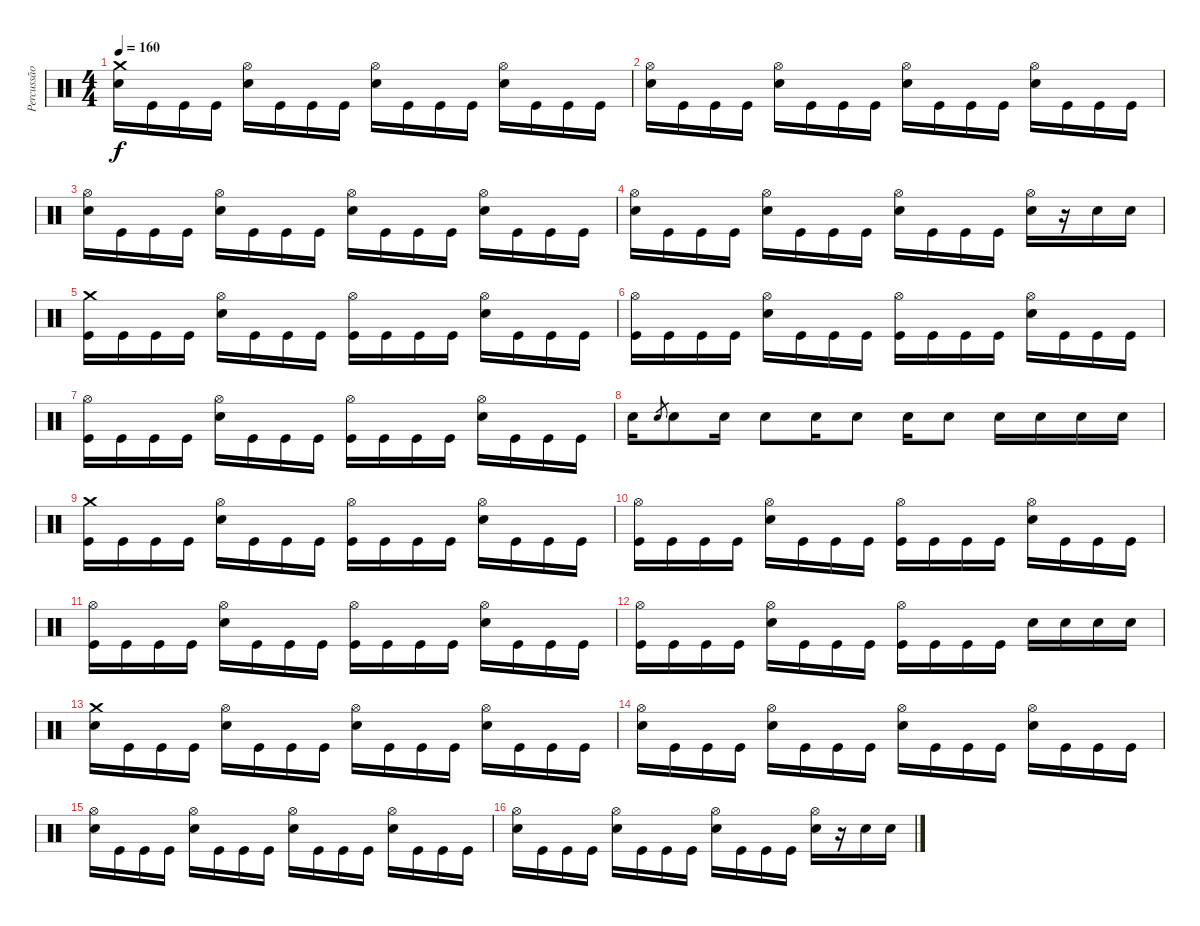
\track ("Percussão" "Percussão") {instrument percussion}
\staff {score}
\articulation defaults
\ts (4 4)
\tempo 160
\clef neutral
\ks c
("Crash medium (hit)" "Electric Snare (hit)").16{dy f} "Kick (hit)".16 "Kick (hit)".16 "Kick (hit)".16 ("Hi-Hat (open)" "Electric Snare (hit)").16 "Kick (hit)".16 "Kick (hit)".16 "Kick (hit)".16 ("Hi-Hat (open)" "Electric Snare (hit)").16 "Kick (hit)".16 "Kick (hit)".16 "Kick (hit)".16 ("Hi-Hat (open)" "Electric Snare (hit)").16 "Kick (hit)".16 "Kick (hit)".16 "Kick (hit)".16 |
("Hi-Hat (open)" "Electric Snare (hit)").16 "Kick (hit)".16 "Kick (hit)".16 "Kick (hit)".16 ("Hi-Hat (open)" "Electric Snare (hit)").16 "Kick (hit)".16 "Kick (hit)".16 "Kick (hit)".16 ("Hi-Hat (open)" "Electric Snare (hit)").16 "Kick (hit)".16 "Kick (hit)".16 "Kick (hit)".16 ("Hi-Hat (open)" "Electric Snare (hit)").16 "Kick (hit)".16 "Kick (hit)".16 "Kick (hit)".16 |
("Hi-Hat (open)" "Electric Snare (hit)").16 "Kick (hit)".16 "Kick (hit)".16 "Kick (hit)".16 ("Hi-Hat (open)" "Electric Snare (hit)").16 "Kick (hit)".16 "Kick (hit)".16 "Kick (hit)".16 ("Hi-Hat (open)" "Electric Snare (hit)").16 "Kick (hit)".16 "Kick (hit)".16 "Kick (hit)".16 ("Hi-Hat (open)" "Electric Snare (hit)").16 "Kick (hit)".16 "Kick (hit)".16 "Kick (hit)".16 |
("Hi-Hat (open)" "Electric Snare (hit)").16 "Kick (hit)".16 "Kick (hit)".16 "Kick (hit)".16 ("Hi-Hat (open)" "Electric Snare (hit)").16 "Kick (hit)".16 "Kick (hit)".16 "Kick (hit)".16 ("Hi-Hat (open)" "Electric Snare (hit)").16 "Kick (hit)".16 "Kick (hit)".16 "Kick (hit)".16 ("Hi-Hat (open)" "Electric Snare (hit)").16 r.16 "Electric Snare (hit)".16 "Electric Snare (hit)".16 |
("Crash medium (hit)" "Kick (hit)").16 "Kick (hit)".16 "Kick (hit)".16 "Kick (hit)".16 ("Hi-Hat (open)" "Electric Snare (hit)").16 "Kick (hit)".16 "Kick (hit)".16 "Kick (hit)".16 ("Hi-Hat (open)" "Kick (hit)").16 "Kick (hit)".16 "Kick (hit)".16 "Kick (hit)".16 ("Hi-Hat (open)" "Electric Snare (hit)").16 "Kick (hit)".16 "Kick (hit)".16 "Kick (hit)".16 |
("Hi-Hat (open)" "Kick (hit)").16 "Kick (hit)".16 "Kick (hit)".16 "Kick (hit)".16 ("Hi-Hat (open)" "Electric Snare (hit)").16 "Kick (hit)".16 "Kick (hit)".16 "Kick (hit)".16 ("Hi-Hat (open)" "Kick (hit)").16 "Kick (hit)".16 "Kick (hit)".16 "Kick (hit)".16 ("Hi-Hat (open)" "Electric Snare (hit)").16 "Kick (hit)".16 "Kick (hit)".16 "Kick (hit)".16 |
("Hi-Hat (open)" "Kick (hit)").16 "Kick (hit)".16 "Kick (hit)".16 "Kick (hit)".16 ("Hi-Hat (open)" "Electric Snare (hit)").16 "Kick (hit)".16 "Kick (hit)".16 "Kick (hit)".16 ("Hi-Hat (open)" "Kick (hit)").16 "Kick (hit)".16 "Kick (hit)".16 "Kick (hit)".16 ("Hi-Hat (open)" "Electric Snare (hit)").16 "Kick (hit)".16 "Kick (hit)".16 "Kick (hit)".16 |
"Electric Snare (hit)".16 "Electric Snare (hit)".8{gr} "Electric Snare (hit)".8 "Electric Snare (hit)".16 "Electric Snare (hit)".8 "Electric Snare (hit)".16 "Electric Snare (hit)".8 "Electric Snare (hit)".16 "Electric Snare (hit)".8 "Electric Snare (hit)".16 "Electric Snare (hit)".16 "Electric Snare (hit)".16 "Electric Snare (hit)".16 |
("Crash medium (hit)" "Kick (hit)").16 "Kick (hit)".16 "Kick (hit)".16 "Kick (hit)".16 ("Hi-Hat (open)" "Electric Snare (hit)").16 "Kick (hit)".16 "Kick (hit)".16 "Kick (hit)".16 ("Hi-Hat (open)" "Kick (hit)").16 "Kick (hit)".16 "Kick (hit)".16 "Kick (hit)".16 ("Hi-Hat (open)" "Electric Snare (hit)").16 "Kick (hit)".16 "Kick (hit)".16 "Kick (hit)".16 |
("Hi-Hat (open)" "Kick (hit)").16 "Kick (hit)".16 "Kick (hit)".16 "Kick (hit)".16 ("Hi-Hat (open)" "Electric Snare (hit)").16 "Kick (hit)".16 "Kick (hit)".16 "Kick (hit)".16 ("Hi-Hat (open)" "Kick (hit)").16 "Kick (hit)".16 "Kick (hit)".16 "Kick (hit)".16 ("Hi-Hat (open)" "Electric Snare (hit)").16 "Kick (hit)".16 "Kick (hit)".16 "Kick (hit)".16 |
("Hi-Hat (open)" "Kick (hit)").16 "Kick (hit)".16 "Kick (hit)".16 "Kick (hit)".16 ("Hi-Hat (open)" "Electric Snare (hit)").16 "Kick (hit)".16 "Kick (hit)".16 "Kick (hit)".16 ("Hi-Hat (open)" "Kick (hit)").16 "Kick (hit)".16 "Kick (hit)".16 "Kick (hit)".16 ("Hi-Hat (open)" "Electric Snare (hit)").16 "Kick (hit)".16 "Kick (hit)".16 "Kick (hit)".16 |
("Hi-Hat (open)" "Kick (hit)").16 "Kick (hit)".16 "Kick (hit)".16 "Kick (hit)".16 ("Hi-Hat (open)" "Electric Snare (hit)").16 "Kick (hit)".16 "Kick (hit)".16 "Kick (hit)".16 ("Hi-Hat (open)" "Kick (hit)").16 "Kick (hit)".16 "Kick (hit)".16 "Kick (hit)".16 "Electric Snare (hit)".16 "Electric Snare (hit)".16 "Electric Snare (hit)".16 "Electric Snare (hit)".16 |
("Crash medium (hit)" "Electric Snare (hit)").16 "Kick (hit)".16 "Kick (hit)".16 "Kick (hit)".16 ("Hi-Hat (open)" "Electric Snare (hit)").16 "Kick (hit)".16 "Kick (hit)".16 "Kick (hit)".16 ("Hi-Hat (open)" "Electric Snare (hit)").16 "Kick (hit)".16 "Kick (hit)".16 "Kick (hit)".16 ("Hi-Hat (open)" "Electric Snare (hit)").16 "Kick (hit)".16 "Kick (hit)".16 "Kick (hit)".16 |
("Hi-Hat (open)" "Electric Snare (hit)").16 "Kick (hit)".16 "Kick (hit)".16 "Kick (hit)".16 ("Hi-Hat (open)" "Electric Snare (hit)").16 "Kick (hit)".16 "Kick (hit)".16 "Kick (hit)".16 ("Hi-Hat (open)" "Electric Snare (hit)").16 "Kick (hit)".16 "Kick (hit)".16 "Kick (hit)".16 ("Hi-Hat (open)" "Electric Snare (hit)").16 "Kick (hit)".16 "Kick (hit)".16 "Kick (hit)".16 |
("Hi-Hat (open)" "Electric Snare (hit)").16 "Kick (hit)".16 "Kick (hit)".16 "Kick (hit)".16 ("Hi-Hat (open)" "Electric Snare (hit)").16 "Kick (hit)".16 "Kick (hit)".16 "Kick (hit)".16 ("Hi-Hat (open)" "Electric Snare (hit)").16 "Kick (hit)".16 "Kick (hit)".16 "Kick (hit)".16 ("Hi-Hat (open)" "Electric Snare (hit)").16 "Kick (hit)".16 "Kick (hit)".16 "Kick (hit)".16 |
("Hi-Hat (open)" "Electric Snare (hit)").16 "Kick (hit)".16 "Kick (hit)".16 "Kick (hit)".16 ("Hi-Hat (open)" "Electric Snare (hit)").16 "Kick (hit)".16 "Kick (hit)".16 "Kick (hit)".16 ("Hi-Hat (open)" "Electric Snare (hit)").16 "Kick (hit)".16 "Kick (hit)".16 "Kick (hit)".16 ("Hi-Hat (open)" "Electric Snare (hit)").16 r.16 "Electric Snare (hit)".16 "Electric Snare (hit)".16
